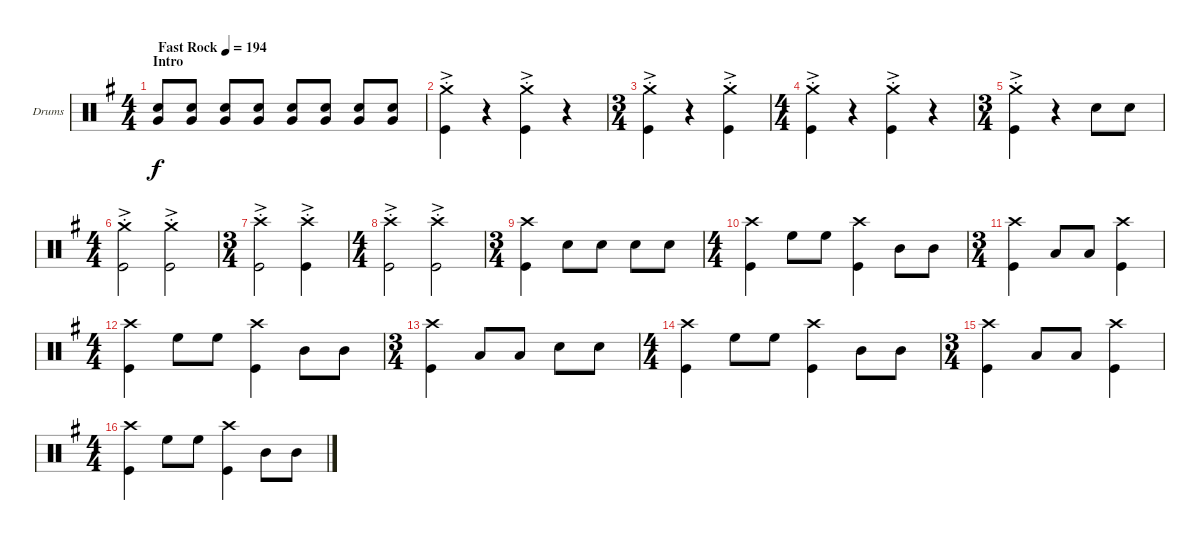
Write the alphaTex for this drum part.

\bracketExtendMode groupsimilarinstruments
\firstSystemTrackNameOrientation horizontal
\otherSystemsTrackNameOrientation horizontal
\track ("Drumkit" "Drums") {instrument percussion}
\staff {score}
\articulation defaults
\ts (4 4)
\section ("" "Intro")
\tempo (194 "Fast Rock")
\clef neutral
\scale
1.07314
\ks g
("Very Low Tom (hit)" "Snare (hit) 2").8{dy f} ("Very Low Tom (hit)" "Snare (hit) 2").8 ("Very Low Tom (hit)" "Snare (hit) 2").8 ("Very Low Tom (hit)" "Snare (hit) 2").8 ("Very Low Tom (hit)" "Snare (hit) 2").8 ("Very Low Tom (hit)" "Snare (hit) 2").8 ("Very Low Tom (hit)" "Snare (hit) 2").8 ("Very Low Tom (hit)" "Snare (hit) 2").8 |
\scale
0.92686 ("Kick (hit)"{st} "Crash medium (hit)"{ac}).4 r.4 ("Kick (hit)"{st} "Crash medium (hit)"{ac}).4 r.4 |
\ts (3 4)
\scale
1.07314 ("Kick (hit)"{ac st} "Crash medium (hit)").4 r.4 ("Kick (hit)"{ac st} "Crash medium (hit)").4 |
\ts (4 4)
\scale
0.92686 ("Kick (hit)"{ac st} "Crash medium (hit)").4 r.4 ("Kick (hit)"{ac st} "Crash medium (hit)").4 r.4 |
\ts (3 4)
\scale
1.07314 ("Kick (hit)"{ac st} "Crash medium (hit)").4 r.4 "Snare (hit) 2".8 "Snare (hit) 2".8 |
\ts (4 4)
\scale
0.92686 ("Kick (hit)"{ac st} "Crash medium (hit)").2 ("Kick (hit)"{ac st} "Crash medium (hit)").2 |
\ts (3 4)
\scale
1.07314 ("Crash high (hit)" "Kick (hit)"{ac st}).2 ("Crash high (hit)" "Kick (hit)"{ac st}).4 |
\ts (4 4)
\scale
0.92686 ("Crash high (hit)" "Kick (hit)"{ac st}).2 ("Crash high (hit)" "Kick (hit)"{ac st}).2 |
\ts (3 4)
\scale
1.07314 ("Crash high (hit)" "Kick (hit)").4 "Snare (hit) 2".8 "Snare (hit) 2".8 "Snare (hit) 2".8 "Snare (hit) 2".8 |
\ts (4 4)
\scale
0.92686 ("Crash high (hit)" "Kick (hit)").4 "High Floor Tom (hit)".8 "High Floor Tom (hit)".8 ("Crash high (hit)" "Kick (hit)").4 "Mid Tom (hit)".8 "Mid Tom (hit)".8 |
\ts (3 4)
\scale
1.07314 ("Crash high (hit)" "Kick (hit)").4 "Low Tom (hit)".8 "Low Tom (hit)".8 ("Crash high (hit)" "Kick (hit)").4 |
\ts (4 4)
\scale
0.92686 ("Crash high (hit)" "Kick (hit)").4 "High Floor Tom (hit)".8 "High Floor Tom (hit)".8 ("Crash high (hit)" "Kick (hit)").4 "Mid Tom (hit)".8 "Mid Tom (hit)".8 |
\ts (3 4)
\scale
1.07314 ("Crash high (hit)" "Kick (hit)").4 "Low Tom (hit)".8 "Low Tom (hit)".8 "Snare (hit) 2".8 "Snare (hit) 2".8 |
\ts (4 4)
\scale
0.92686 ("Crash high (hit)" "Kick (hit)").4 "High Floor Tom (hit)".8 "High Floor Tom (hit)".8 ("Crash high (hit)" "Kick (hit)").4 "Mid Tom (hit)".8 "Mid Tom (hit)".8 |
\ts (3 4)
\scale
1.07314 ("Crash high (hit)" "Kick (hit)").4 "Low Tom (hit)".8 "Low Tom (hit)".8 ("Crash high (hit)" "Kick (hit)").4 |
\ts (4 4)
\scale
0.92686 ("Crash high (hit)" "Kick (hit)").4 "High Floor Tom (hit)".8 "High Floor Tom (hit)".8 ("Crash high (hit)" "Kick (hit)").4 "Mid Tom (hit)".8 "Mid Tom (hit)".8
